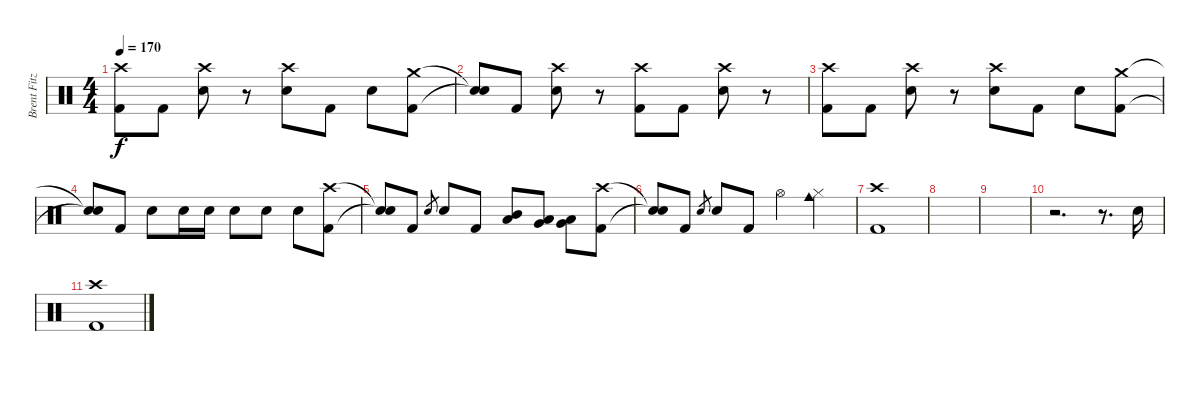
\track ("Brent Fitz" "Brent Fitz") {instrument percussion}
\staff {score}
\articulation defaults
\ts (4 4)
\tempo 170
\clef neutral
\ks c
("Crash high (hit)" "Kick (hit) 2").8{dy f} "Kick (hit) 2".8 ("Crash high (hit)" "Electric Snare (hit)").8 r.8 ("Crash high (hit)" "Electric Snare (hit)").8 "Kick (hit) 2".8 "Electric Snare (hit)".8 ("Crash medium (hit)" "Kick (hit) 2").8 |
("Snare (hit)"{t} "Snare (hit)"{t}).8 "Kick (hit) 2".8 ("Crash high (hit)" "Electric Snare (hit)").8 r.8 ("Crash high (hit)" "Kick (hit) 2").8 "Kick (hit) 2".8 ("Crash high (hit)" "Electric Snare (hit)").8 r.8 |
("Crash high (hit)" "Kick (hit) 2").8 "Kick (hit) 2".8 ("Crash high (hit)" "Electric Snare (hit)").8 r.8 ("Crash high (hit)" "Electric Snare (hit)").8 "Kick (hit) 2".8 "Electric Snare (hit)".8 ("Crash medium (hit)" "Kick (hit) 2").8 |
("Snare (hit)"{t} "Snare (hit)"{t}).8 "Kick (hit) 2".8 "Electric Snare (hit)".8 "Electric Snare (hit)".16 "Electric Snare (hit)".16 "Electric Snare (hit)".8 "Electric Snare (hit)".8 "Electric Snare (hit)".8 ("Crash high (hit)" "Kick (hit) 2").8 |
("Snare (hit)"{t} "Snare (hit)"{t}).8 "Kick (hit) 2".8 "Electric Snare (hit)".8{gr} "Electric Snare (hit)".8 "Kick (hit) 2".8 ("Mid Tom (hit)" "Low Tom (hit)").8 ("Low Tom (hit)" "Very Low Tom (hit)").8 ("Low Tom (hit)" "Very Low Tom (hit)").8 ("Crash high (hit)" "Kick (hit) 2").8 |
("Snare (hit)"{t} "Snare (hit)"{t}).8 "Kick (hit) 2".8 "Electric Snare (hit)".8{gr} "Electric Snare (hit)".8 "Kick (hit) 2".8 "Hi-Hat (open)".4 ("Cowbell medium (hit)" "Hi-Hat (closed)").4 |
("Crash high (hit)" "Kick (hit) 2").1 |
|
|
r.2{d} r.8{d} "Electric Snare (hit)".16 |
("Crash high (hit)" "Kick (hit) 2").1
